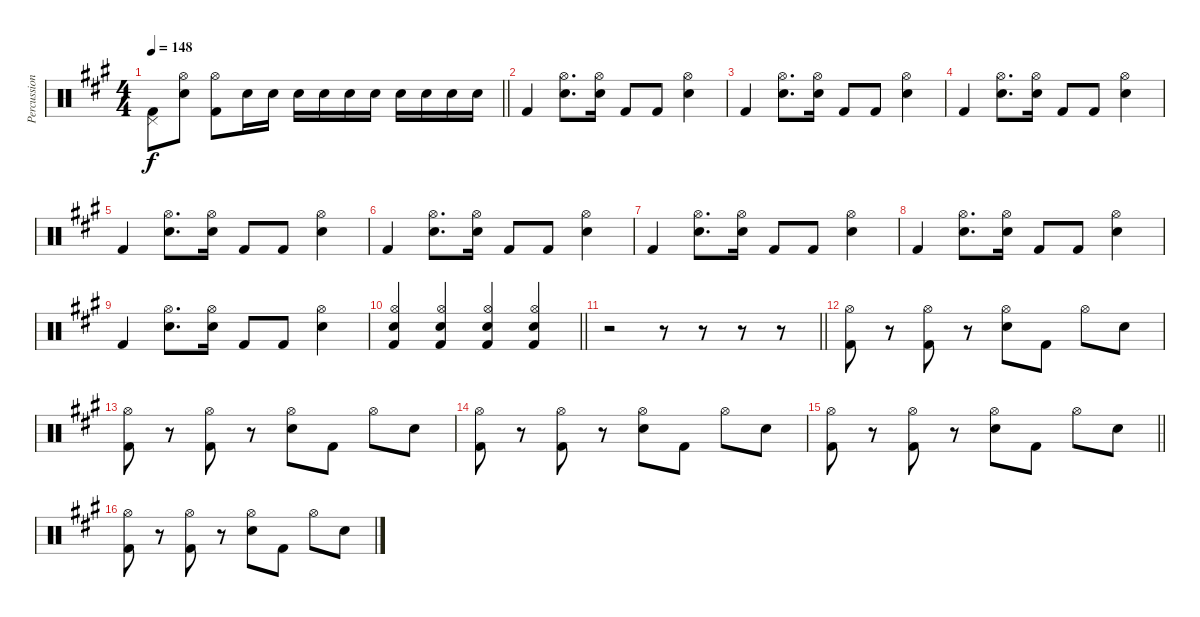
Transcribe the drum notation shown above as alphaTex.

\track ("Percussion" "Percussion") {instrument percussion}
\staff {score}
\articulation defaults
\ts (4 4)
\tempo 148
\clef neutral
\barLineRight lightlight
\ks a
("Pedal Hi-Hat (hit)" "Kick (hit) 2").8{dy f} ("Hi-Hat (open)" "Electric Snare (hit)").8 ("Hi-Hat (open)" "Kick (hit) 2").8 "Electric Snare (hit)".16 "Electric Snare (hit)".16 "Electric Snare (hit)".16 "Electric Snare (hit)".16 "Electric Snare (hit)".16 "Electric Snare (hit)".16 "Electric Snare (hit)".16 "Electric Snare (hit)".16 "Electric Snare (hit)".16 "Electric Snare (hit)".16 |
"Kick (hit) 2".4 ("Hi-Hat (open)" "Electric Snare (hit)").8{d} ("Hi-Hat (open)" "Electric Snare (hit)").16 "Kick (hit) 2".8 "Kick (hit) 2".8 ("Hi-Hat (open)" "Electric Snare (hit)").4 |
"Kick (hit) 2".4 ("Hi-Hat (open)" "Electric Snare (hit)").8{d} ("Hi-Hat (open)" "Electric Snare (hit)").16 "Kick (hit) 2".8 "Kick (hit) 2".8 ("Hi-Hat (open)" "Electric Snare (hit)").4 |
"Kick (hit) 2".4 ("Hi-Hat (open)" "Electric Snare (hit)").8{d} ("Hi-Hat (open)" "Electric Snare (hit)").16 "Kick (hit) 2".8 "Kick (hit) 2".8 ("Hi-Hat (open)" "Electric Snare (hit)").4 |
"Kick (hit) 2".4 ("Hi-Hat (open)" "Electric Snare (hit)").8{d} ("Hi-Hat (open)" "Electric Snare (hit)").16 "Kick (hit) 2".8 "Kick (hit) 2".8 ("Hi-Hat (open)" "Electric Snare (hit)").4 |
"Kick (hit) 2".4 ("Hi-Hat (open)" "Electric Snare (hit)").8{d} ("Hi-Hat (open)" "Electric Snare (hit)").16 "Kick (hit) 2".8 "Kick (hit) 2".8 ("Hi-Hat (open)" "Electric Snare (hit)").4 |
"Kick (hit) 2".4 ("Hi-Hat (open)" "Electric Snare (hit)").8{d} ("Hi-Hat (open)" "Electric Snare (hit)").16 "Kick (hit) 2".8 "Kick (hit) 2".8 ("Hi-Hat (open)" "Electric Snare (hit)").4 |
"Kick (hit) 2".4 ("Hi-Hat (open)" "Electric Snare (hit)").8{d} ("Hi-Hat (open)" "Electric Snare (hit)").16 "Kick (hit) 2".8 "Kick (hit) 2".8 ("Hi-Hat (open)" "Electric Snare (hit)").4 |
"Kick (hit) 2".4 ("Hi-Hat (open)" "Electric Snare (hit)").8{d} ("Hi-Hat (open)" "Electric Snare (hit)").16 "Kick (hit) 2".8 "Kick (hit) 2".8 ("Hi-Hat (open)" "Electric Snare (hit)").4 |
\barLineRight lightlight
("Hi-Hat (open)" "Electric Snare (hit)" "Kick (hit) 2").4 ("Hi-Hat (open)" "Electric Snare (hit)" "Kick (hit) 2").4 ("Hi-Hat (open)" "Electric Snare (hit)" "Kick (hit) 2").4 ("Hi-Hat (open)" "Electric Snare (hit)" "Kick (hit) 2").4 |
\barLineRight lightlight
r.2 r.8 r.8 r.8 r.8 |
("Hi-Hat (open)" "Kick (hit) 2").8 r.8 ("Hi-Hat (open)" "Kick (hit) 2").8 r.8 ("Hi-Hat (open)" "Electric Snare (hit)").8 "Kick (hit) 2".8 "Hi-Hat (open)".8 "Electric Snare (hit)".8 |
("Hi-Hat (open)" "Kick (hit) 2").8 r.8 ("Hi-Hat (open)" "Kick (hit) 2").8 r.8 ("Hi-Hat (open)" "Electric Snare (hit)").8 "Kick (hit) 2".8 "Hi-Hat (open)".8 "Electric Snare (hit)".8 |
("Hi-Hat (open)" "Kick (hit) 2").8 r.8 ("Hi-Hat (open)" "Kick (hit) 2").8 r.8 ("Hi-Hat (open)" "Electric Snare (hit)").8 "Kick (hit) 2".8 "Hi-Hat (open)".8 "Electric Snare (hit)".8 |
\barLineRight lightlight
("Hi-Hat (open)" "Kick (hit) 2").8 r.8 ("Hi-Hat (open)" "Kick (hit) 2").8 r.8 ("Hi-Hat (open)" "Electric Snare (hit)").8 "Kick (hit) 2".8 "Hi-Hat (open)".8 "Electric Snare (hit)".8 |
("Hi-Hat (open)" "Kick (hit) 2").8 r.8 ("Hi-Hat (open)" "Kick (hit) 2").8 r.8 ("Hi-Hat (open)" "Electric Snare (hit)").8 "Kick (hit) 2".8 "Hi-Hat (open)".8 "Electric Snare (hit)".8
